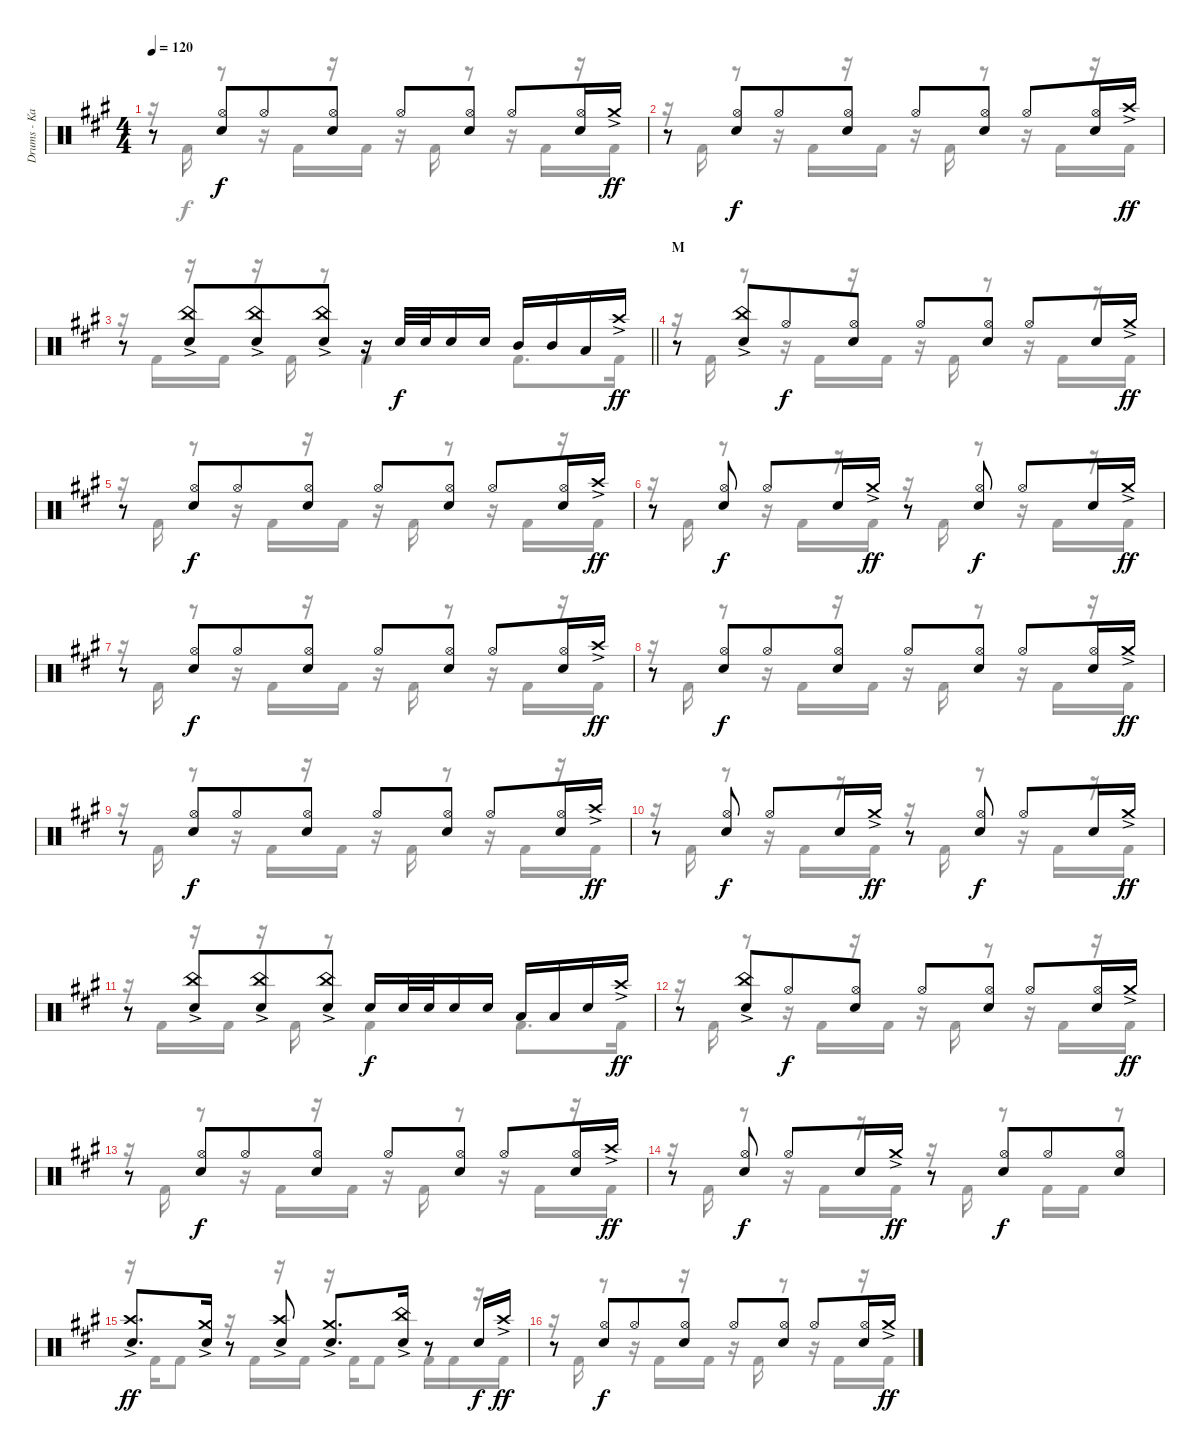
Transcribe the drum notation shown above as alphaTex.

\track ("Drums - Kai" "Drums - Ka") {instrument percussion}
\staff {score}
\articulation defaults
\voice
\ts (4 4)
\tempo 120
\clef neutral
\ks a
r.8{dy ff} ("Hi-Hat (open)" "Snare (hit) 2").8{dy f beam merge} "Hi-Hat (open)".8 ("Hi-Hat (open)" "Snare (hit) 2").8 "Hi-Hat (open)".8 ("Hi-Hat (open)" "Snare (hit) 2").8 "Hi-Hat (open)".8 ("Hi-Hat (open)" "Snare (hit) 2").16 "Crash medium (hit)"{ac}.16{dy ff} |
r.8 ("Hi-Hat (open)" "Snare (hit) 2").8{dy f beam merge} "Hi-Hat (open)".8 ("Hi-Hat (open)" "Snare (hit) 2").8 "Hi-Hat (open)".8 ("Hi-Hat (open)" "Snare (hit) 2").8 "Hi-Hat (open)".8 ("Hi-Hat (open)" "Snare (hit) 2").16 "Crash high (hit)"{ac}.16{dy ff} |
\barLineRight lightlight
r.8 ("China (hit)"{ac} "Snare (hit) 2").8{beam merge} ("China (hit)"{ac} "Snare (hit) 2").8 ("China (hit)"{ac} "Snare (hit) 2").8 r.16 "Snare (hit) 2".32{dy f} "Snare (hit) 2".32 "Snare (hit) 2".16 "Snare (hit) 2".16 "Mid Tom (hit)".16 "Mid Tom (hit)".16 "Low Tom (hit)".16 "Crash high (hit)"{ac}.16{dy ff} |
\section ("" "M")
r.8 ("China (hit)"{ac} "Snare (hit) 2").8{beam merge} "Hi-Hat (open)".8{dy f} ("Hi-Hat (open)" "Snare (hit) 2").8 "Hi-Hat (open)".8 ("Hi-Hat (open)" "Snare (hit) 2").8 "Hi-Hat (open)".8 "Snare (hit) 2".16 "Crash medium (hit)"{ac}.16{dy ff} |
r.8 ("Hi-Hat (open)" "Snare (hit) 2").8{dy f beam merge} "Hi-Hat (open)".8 ("Hi-Hat (open)" "Snare (hit) 2").8 "Hi-Hat (open)".8 ("Hi-Hat (open)" "Snare (hit) 2").8 "Hi-Hat (open)".8 ("Hi-Hat (open)" "Snare (hit) 2").16 "Crash high (hit)"{ac}.16{dy ff} |
r.8 ("Hi-Hat (open)" "Snare (hit) 2").8{dy f} "Hi-Hat (open)".8 "Snare (hit) 2".16 "Crash medium (hit)"{ac}.16{dy ff} r.8 ("Hi-Hat (open)" "Snare (hit) 2").8{dy f} "Hi-Hat (open)".8 "Snare (hit) 2".16 "Crash medium (hit)"{ac}.16{dy ff} |
r.8 ("Hi-Hat (open)" "Snare (hit) 2").8{dy f beam merge} "Hi-Hat (open)".8 ("Hi-Hat (open)" "Snare (hit) 2").8 "Hi-Hat (open)".8 ("Hi-Hat (open)" "Snare (hit) 2").8 "Hi-Hat (open)".8 ("Hi-Hat (open)" "Snare (hit) 2").16 "Crash high (hit)"{ac}.16{dy ff} |
r.8 ("Hi-Hat (open)" "Snare (hit) 2").8{dy f beam merge} "Hi-Hat (open)".8 ("Hi-Hat (open)" "Snare (hit) 2").8 "Hi-Hat (open)".8 ("Hi-Hat (open)" "Snare (hit) 2").8 "Hi-Hat (open)".8 ("Hi-Hat (open)" "Snare (hit) 2").16 "Crash medium (hit)"{ac}.16{dy ff} |
r.8 ("Hi-Hat (open)" "Snare (hit) 2").8{dy f beam merge} "Hi-Hat (open)".8 ("Hi-Hat (open)" "Snare (hit) 2").8 "Hi-Hat (open)".8 ("Hi-Hat (open)" "Snare (hit) 2").8 "Hi-Hat (open)".8 ("Hi-Hat (open)" "Snare (hit) 2").16 "Crash high (hit)"{ac}.16{dy ff} |
r.8 ("Hi-Hat (open)" "Snare (hit) 2").8{dy f} "Hi-Hat (open)".8 "Snare (hit) 2".16 "Crash medium (hit)"{ac}.16{dy ff} r.8 ("Hi-Hat (open)" "Snare (hit) 2").8{dy f} "Hi-Hat (open)".8 "Snare (hit) 2".16 "Crash medium (hit)"{ac}.16{dy ff} |
r.8 ("China (hit)"{ac} "Snare (hit) 2").8{beam merge} ("China (hit)"{ac} "Snare (hit) 2").8 ("China (hit)"{ac} "Snare (hit) 2").8 "Snare (hit) 2".16{dy f} "Snare (hit) 2".32 "Snare (hit) 2".32 "Snare (hit) 2".16 "Snare (hit) 2".16 "Low Tom (hit)".16 "Low Tom (hit)".16 "Snare (hit) 2".16 "Crash high (hit)"{ac}.16{dy ff} |
r.8 ("China (hit)"{ac} "Snare (hit) 2").8{beam merge} "Hi-Hat (open)".8{dy f} ("Hi-Hat (open)" "Snare (hit) 2").8 "Hi-Hat (open)".8 ("Hi-Hat (open)" "Snare (hit) 2").8 "Hi-Hat (open)".8 ("Hi-Hat (open)" "Snare (hit) 2").16 "Crash medium (hit)"{ac}.16{dy ff} |
r.8 ("Hi-Hat (open)" "Snare (hit) 2").8{dy f beam merge} "Hi-Hat (open)".8 ("Hi-Hat (open)" "Snare (hit) 2").8 "Hi-Hat (open)".8 ("Hi-Hat (open)" "Snare (hit) 2").8 "Hi-Hat (open)".8 ("Hi-Hat (open)" "Snare (hit) 2").16 "Crash high (hit)"{ac}.16{dy ff} |
r.8 ("Hi-Hat (open)" "Snare (hit) 2").8{dy f} "Hi-Hat (open)".8 "Snare (hit) 2".16 "Crash medium (hit)"{ac}.16{dy ff} r.8 ("Hi-Hat (open)" "Snare (hit) 2").8{dy f beam merge} "Hi-Hat (open)".8 ("Hi-Hat (open)" "Snare (hit) 2").8 |
("Crash high (hit)"{ac} "Snare (hit) 2").8{d dy ff} ("Crash medium (hit)"{ac} "Snare (hit) 2").16 r.8 ("Crash high (hit)"{ac} "Snare (hit) 2").8 ("Crash medium (hit)"{ac} "Snare (hit) 2").8{d} ("China (hit)"{ac} "Snare (hit) 2").16 r.8 "Snare (hit) 2".16{dy f} "Crash high (hit)"{ac}.16{dy ff} |
r.8 ("Hi-Hat (open)" "Snare (hit) 2").8{dy f beam merge} "Hi-Hat (open)".8 ("Hi-Hat (open)" "Snare (hit) 2").8 "Hi-Hat (open)".8 ("Hi-Hat (open)" "Snare (hit) 2").8 "Hi-Hat (open)".8 ("Hi-Hat (open)" "Snare (hit) 2").16 "Crash medium (hit)"{ac}.16{dy ff}
\voice
\clef neutral
\ottava regular
\simile none
\ks a
r.16{dy f} "Kick (hit) 2".16 r.8 r.16 "Kick (hit) 2".16 r.16 "Kick (hit) 2".16 r.16 "Kick (hit) 2".16 r.8 r.16 "Kick (hit) 2".16 r.16 "Kick (hit) 2".16 |
r.16 "Kick (hit) 2".16 r.8 r.16 "Kick (hit) 2".16 r.16 "Kick (hit) 2".16 r.16 "Kick (hit) 2".16 r.8 r.16 "Kick (hit) 2".16 r.16 "Kick (hit) 2".16 |
\barLineRight lightlight
r.16 "Kick (hit) 2".16 r.16 "Kick (hit) 2".16 r.16 "Kick (hit) 2".16 r.8 "Kick (hit) 2".4 "Kick (hit) 2".8{d} "Kick (hit) 2".16 |
r.16 "Kick (hit) 2".16 r.8 r.16 "Kick (hit) 2".16 r.16 "Kick (hit) 2".16 r.16 "Kick (hit) 2".16 r.8 r.16 "Kick (hit) 2".16 r.16 "Kick (hit) 2".16 |
r.16 "Kick (hit) 2".16 r.8 r.16 "Kick (hit) 2".16 r.16 "Kick (hit) 2".16 r.16 "Kick (hit) 2".16 r.8 r.16 "Kick (hit) 2".16 r.16 "Kick (hit) 2".16 |
r.16 "Kick (hit) 2".16 r.8 r.16 "Kick (hit) 2".16 r.16 "Kick (hit) 2".16 r.16 "Kick (hit) 2".16 r.8 r.16 "Kick (hit) 2".16 r.16 "Kick (hit) 2".16 |
r.16 "Kick (hit) 2".16 r.8 r.16 "Kick (hit) 2".16 r.16 "Kick (hit) 2".16 r.16 "Kick (hit) 2".16 r.8 r.16 "Kick (hit) 2".16 r.16 "Kick (hit) 2".16 |
r.16 "Kick (hit) 2".16 r.8 r.16 "Kick (hit) 2".16 r.16 "Kick (hit) 2".16 r.16 "Kick (hit) 2".16 r.8 r.16 "Kick (hit) 2".16 r.16 "Kick (hit) 2".16 |
r.16 "Kick (hit) 2".16 r.8 r.16 "Kick (hit) 2".16 r.16 "Kick (hit) 2".16 r.16 "Kick (hit) 2".16 r.8 r.16 "Kick (hit) 2".16 r.16 "Kick (hit) 2".16 |
r.16 "Kick (hit) 2".16 r.8 r.16 "Kick (hit) 2".16 r.16 "Kick (hit) 2".16 r.16 "Kick (hit) 2".16 r.8 r.16 "Kick (hit) 2".16 r.16 "Kick (hit) 2".16 |
r.16 "Kick (hit) 2".16 r.16 "Kick (hit) 2".16 r.16 "Kick (hit) 2".16 r.8 "Kick (hit) 2".4 "Kick (hit) 2".8{d} "Kick (hit) 2".16 |
r.16 "Kick (hit) 2".16 r.8 r.16 "Kick (hit) 2".16 r.16 "Kick (hit) 2".16 r.16 "Kick (hit) 2".16 r.8 r.16 "Kick (hit) 2".16 r.16 "Kick (hit) 2".16 |
r.16 "Kick (hit) 2".16 r.8 r.16 "Kick (hit) 2".16 r.16 "Kick (hit) 2".16 r.16 "Kick (hit) 2".16 r.8 r.16 "Kick (hit) 2".16 r.16 "Kick (hit) 2".16 |
r.16 "Kick (hit) 2".16 r.8 r.16 "Kick (hit) 2".16 r.16 "Kick (hit) 2".16 r.16 "Kick (hit) 2".16 r.8 "Kick (hit) 2".16 "Kick (hit) 2".16 r.8 |
r.16 "Kick (hit) 2".16 "Kick (hit) 2".8 r.16 "Kick (hit) 2".16 r.16 "Kick (hit) 2".16 r.16 "Kick (hit) 2".16 "Kick (hit) 2".8 "Kick (hit) 2".16 "Kick (hit) 2".16 r.16 "Kick (hit) 2".16 |
r.16 "Kick (hit) 2".16 r.8 r.16 "Kick (hit) 2".16 r.16 "Kick (hit) 2".16 r.16 "Kick (hit) 2".16 r.8 r.16 "Kick (hit) 2".16 r.16 "Kick (hit) 2".16
